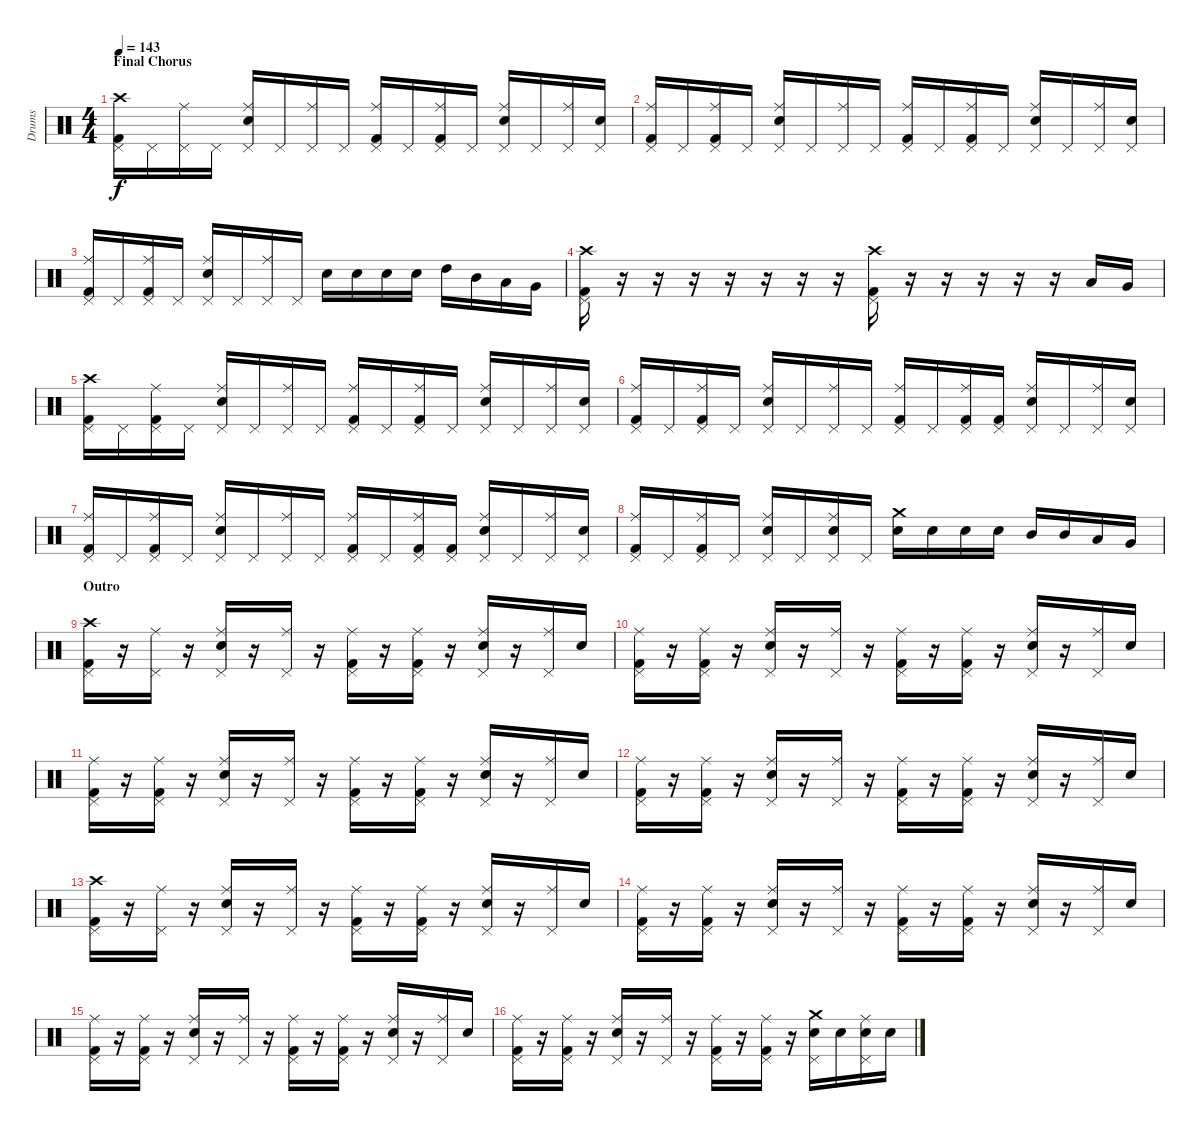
\track ("Drums" "Drums") {instrument percussion}
\staff {score}
\articulation defaults
\ts (4 4)
\section ("" "Final Chorus")
\tempo 143
\clef neutral
\ks c
("Crash high (hit)" "Kick (hit) 2" "Pedal Hi-Hat (hit)").16{dy f} "Pedal Hi-Hat (hit)".16 ("Ride (middle)" "Pedal Hi-Hat (hit)").16 "Pedal Hi-Hat (hit)".16 ("Ride (middle)" "Electric Snare (hit)" "Pedal Hi-Hat (hit)").16 "Pedal Hi-Hat (hit)".16 ("Ride (middle)" "Pedal Hi-Hat (hit)").16 "Pedal Hi-Hat (hit)".16 ("Ride (middle)" "Kick (hit) 2" "Pedal Hi-Hat (hit)").16 "Pedal Hi-Hat (hit)".16 ("Ride (middle)" "Kick (hit) 2" "Pedal Hi-Hat (hit)").16 "Pedal Hi-Hat (hit)".16 ("Ride (middle)" "Electric Snare (hit)" "Pedal Hi-Hat (hit)").16 "Pedal Hi-Hat (hit)".16 ("Ride (middle)" "Pedal Hi-Hat (hit)").16 ("Electric Snare (hit)" "Pedal Hi-Hat (hit)").16 |
("Ride (middle)" "Kick (hit) 2" "Pedal Hi-Hat (hit)").16 "Pedal Hi-Hat (hit)".16 ("Ride (middle)" "Kick (hit) 2" "Pedal Hi-Hat (hit)").16 "Pedal Hi-Hat (hit)".16 ("Ride (middle)" "Electric Snare (hit)" "Pedal Hi-Hat (hit)").16 "Pedal Hi-Hat (hit)".16 ("Ride (middle)" "Pedal Hi-Hat (hit)").16 "Pedal Hi-Hat (hit)".16 ("Ride (middle)" "Kick (hit) 2" "Pedal Hi-Hat (hit)").16 "Pedal Hi-Hat (hit)".16 ("Ride (middle)" "Kick (hit) 2" "Pedal Hi-Hat (hit)").16 "Pedal Hi-Hat (hit)".16 ("Ride (middle)" "Electric Snare (hit)" "Pedal Hi-Hat (hit)").16 "Pedal Hi-Hat (hit)".16 ("Ride (middle)" "Pedal Hi-Hat (hit)").16 ("Electric Snare (hit)" "Pedal Hi-Hat (hit)").16 |
("Ride (middle)" "Kick (hit) 2" "Pedal Hi-Hat (hit)").16 "Pedal Hi-Hat (hit)".16 ("Ride (middle)" "Kick (hit) 2" "Pedal Hi-Hat (hit)").16 "Pedal Hi-Hat (hit)".16 ("Ride (middle)" "Electric Snare (hit)" "Pedal Hi-Hat (hit)").16 "Pedal Hi-Hat (hit)".16 ("Ride (middle)" "Pedal Hi-Hat (hit)").16 "Pedal Hi-Hat (hit)".16 "Electric Snare (hit)".16 "Electric Snare (hit)".16 "Electric Snare (hit)".16 "Electric Snare (hit)".16 "High Tom (hit)".16 "Mid Tom (hit)".16 "Low Tom (hit)".16 "Very Low Tom (hit)".16 |
("Crash high (hit)" "Kick (hit) 2" "Pedal Hi-Hat (hit)").16 r.16 r.16 r.16 r.16 r.16 r.16 r.16 ("Crash high (hit)" "Kick (hit) 2" "Pedal Hi-Hat (hit)").16 r.16 r.16 r.16 r.16 r.16 "Low Tom (hit)".16 "Very Low Tom (hit)".16 |
("Crash high (hit)" "Kick (hit) 2" "Pedal Hi-Hat (hit)").16 "Pedal Hi-Hat (hit)".16 ("Ride (middle)" "Kick (hit) 2" "Pedal Hi-Hat (hit)").16 "Pedal Hi-Hat (hit)".16 ("Ride (middle)" "Electric Snare (hit)" "Pedal Hi-Hat (hit)").16 "Pedal Hi-Hat (hit)".16 ("Ride (middle)" "Pedal Hi-Hat (hit)").16 "Pedal Hi-Hat (hit)".16 ("Ride (middle)" "Kick (hit) 2" "Pedal Hi-Hat (hit)").16 "Pedal Hi-Hat (hit)".16 ("Ride (middle)" "Kick (hit) 2" "Pedal Hi-Hat (hit)").16 "Pedal Hi-Hat (hit)".16 ("Ride (middle)" "Electric Snare (hit)" "Pedal Hi-Hat (hit)").16 "Pedal Hi-Hat (hit)".16 ("Ride (middle)" "Pedal Hi-Hat (hit)").16 ("Electric Snare (hit)" "Pedal Hi-Hat (hit)").16 |
("Ride (middle)" "Kick (hit) 2" "Pedal Hi-Hat (hit)").16 "Pedal Hi-Hat (hit)".16 ("Ride (middle)" "Kick (hit) 2" "Pedal Hi-Hat (hit)").16 "Pedal Hi-Hat (hit)".16 ("Ride (middle)" "Electric Snare (hit)" "Pedal Hi-Hat (hit)").16 "Pedal Hi-Hat (hit)".16 ("Ride (middle)" "Pedal Hi-Hat (hit)").16 "Pedal Hi-Hat (hit)".16 ("Ride (middle)" "Kick (hit) 2" "Pedal Hi-Hat (hit)").16 "Pedal Hi-Hat (hit)".16 ("Ride (middle)" "Kick (hit) 2" "Pedal Hi-Hat (hit)").16 ("Kick (hit) 2" "Pedal Hi-Hat (hit)").16 ("Ride (middle)" "Electric Snare (hit)" "Pedal Hi-Hat (hit)").16 "Pedal Hi-Hat (hit)".16 ("Ride (middle)" "Pedal Hi-Hat (hit)").16 ("Electric Snare (hit)" "Pedal Hi-Hat (hit)").16 |
("Ride (middle)" "Kick (hit) 2" "Pedal Hi-Hat (hit)").16 "Pedal Hi-Hat (hit)".16 ("Ride (middle)" "Kick (hit) 2" "Pedal Hi-Hat (hit)").16 "Pedal Hi-Hat (hit)".16 ("Ride (middle)" "Electric Snare (hit)" "Pedal Hi-Hat (hit)").16 "Pedal Hi-Hat (hit)".16 ("Ride (middle)" "Pedal Hi-Hat (hit)").16 "Pedal Hi-Hat (hit)".16 ("Ride (middle)" "Kick (hit) 2" "Pedal Hi-Hat (hit)").16 "Pedal Hi-Hat (hit)".16 ("Ride (middle)" "Kick (hit) 2" "Pedal Hi-Hat (hit)").16 ("Kick (hit) 2" "Pedal Hi-Hat (hit)").16 ("Ride (middle)" "Electric Snare (hit)" "Pedal Hi-Hat (hit)").16 "Pedal Hi-Hat (hit)".16 ("Ride (middle)" "Pedal Hi-Hat (hit)").16 ("Electric Snare (hit)" "Pedal Hi-Hat (hit)").16 |
("Ride (middle)" "Kick (hit) 2" "Pedal Hi-Hat (hit)").16 "Pedal Hi-Hat (hit)".16 ("Ride (middle)" "Kick (hit) 2" "Pedal Hi-Hat (hit)").16 "Pedal Hi-Hat (hit)".16 ("Ride (middle)" "Electric Snare (hit)" "Pedal Hi-Hat (hit)").16 "Pedal Hi-Hat (hit)".16 ("Ride (middle)" "Electric Snare (hit)" "Pedal Hi-Hat (hit)").16 "Pedal Hi-Hat (hit)".16 ("Crash medium (hit)" "Electric Snare (hit)").16 "Electric Snare (hit)".16 "Electric Snare (hit)".16 "Electric Snare (hit)".16 "Mid Tom (hit)".16 "Mid Tom (hit)".16 "Low Tom (hit)".16 "Very Low Tom (hit)".16 |
\section ("" "Outro")
("Crash high (hit)" "Kick (hit) 2" "Pedal Hi-Hat (hit)").16 r.16 ("Ride (middle)" "Pedal Hi-Hat (hit)").16 r.16 ("Ride (middle)" "Electric Snare (hit)" "Pedal Hi-Hat (hit)").16 r.16 ("Ride (middle)" "Pedal Hi-Hat (hit)").16 r.16 ("Ride (middle)" "Kick (hit) 2" "Pedal Hi-Hat (hit)").16 r.16 ("Ride (middle)" "Kick (hit) 2" "Pedal Hi-Hat (hit)").16 r.16 ("Ride (middle)" "Electric Snare (hit)" "Pedal Hi-Hat (hit)").16 r.16 ("Ride (middle)" "Pedal Hi-Hat (hit)").16 "Electric Snare (hit)".16 |
("Ride (middle)" "Kick (hit) 2" "Pedal Hi-Hat (hit)").16 r.16 ("Ride (middle)" "Kick (hit) 2" "Pedal Hi-Hat (hit)").16 r.16 ("Ride (middle)" "Electric Snare (hit)" "Pedal Hi-Hat (hit)").16 r.16 ("Ride (middle)" "Pedal Hi-Hat (hit)").16 r.16 ("Ride (middle)" "Kick (hit) 2" "Pedal Hi-Hat (hit)").16 r.16 ("Ride (middle)" "Kick (hit) 2" "Pedal Hi-Hat (hit)").16 r.16 ("Ride (middle)" "Electric Snare (hit)" "Pedal Hi-Hat (hit)").16 r.16 ("Ride (middle)" "Pedal Hi-Hat (hit)").16 "Electric Snare (hit)".16 |
("Ride (middle)" "Kick (hit) 2" "Pedal Hi-Hat (hit)").16 r.16 ("Ride (middle)" "Kick (hit) 2" "Pedal Hi-Hat (hit)").16 r.16 ("Ride (middle)" "Electric Snare (hit)" "Pedal Hi-Hat (hit)").16 r.16 ("Ride (middle)" "Pedal Hi-Hat (hit)").16 r.16 ("Ride (middle)" "Kick (hit) 2" "Pedal Hi-Hat (hit)").16 r.16 ("Ride (middle)" "Kick (hit) 2" "Pedal Hi-Hat (hit)").16 r.16 ("Ride (middle)" "Electric Snare (hit)" "Pedal Hi-Hat (hit)").16 r.16 ("Ride (middle)" "Pedal Hi-Hat (hit)").16 "Electric Snare (hit)".16 |
("Ride (middle)" "Kick (hit) 2" "Pedal Hi-Hat (hit)").16 r.16 ("Ride (middle)" "Kick (hit) 2" "Pedal Hi-Hat (hit)").16 r.16 ("Ride (middle)" "Electric Snare (hit)" "Pedal Hi-Hat (hit)").16 r.16 ("Ride (middle)" "Pedal Hi-Hat (hit)").16 r.16 ("Ride (middle)" "Kick (hit) 2" "Pedal Hi-Hat (hit)").16 r.16 ("Ride (middle)" "Kick (hit) 2" "Pedal Hi-Hat (hit)").16 r.16 ("Ride (middle)" "Electric Snare (hit)" "Pedal Hi-Hat (hit)").16 r.16 ("Ride (middle)" "Pedal Hi-Hat (hit)").16 "Electric Snare (hit)".16 |
("Crash high (hit)" "Kick (hit) 2" "Pedal Hi-Hat (hit)").16 r.16 ("Ride (middle)" "Pedal Hi-Hat (hit)").16 r.16 ("Ride (middle)" "Electric Snare (hit)" "Pedal Hi-Hat (hit)").16 r.16 ("Ride (middle)" "Pedal Hi-Hat (hit)").16 r.16 ("Ride (middle)" "Kick (hit) 2" "Pedal Hi-Hat (hit)").16 r.16 ("Ride (middle)" "Kick (hit) 2" "Pedal Hi-Hat (hit)").16 r.16 ("Ride (middle)" "Electric Snare (hit)" "Pedal Hi-Hat (hit)").16 r.16 ("Ride (middle)" "Pedal Hi-Hat (hit)").16 "Electric Snare (hit)".16 |
("Ride (middle)" "Kick (hit) 2" "Pedal Hi-Hat (hit)").16 r.16 ("Ride (middle)" "Kick (hit) 2" "Pedal Hi-Hat (hit)").16 r.16 ("Ride (middle)" "Electric Snare (hit)" "Pedal Hi-Hat (hit)").16 r.16 ("Ride (middle)" "Pedal Hi-Hat (hit)").16 r.16 ("Ride (middle)" "Kick (hit) 2" "Pedal Hi-Hat (hit)").16 r.16 ("Ride (middle)" "Kick (hit) 2" "Pedal Hi-Hat (hit)").16 r.16 ("Ride (middle)" "Electric Snare (hit)" "Pedal Hi-Hat (hit)").16 r.16 ("Ride (middle)" "Pedal Hi-Hat (hit)").16 "Electric Snare (hit)".16 |
("Ride (middle)" "Kick (hit) 2" "Pedal Hi-Hat (hit)").16 r.16 ("Ride (middle)" "Kick (hit) 2" "Pedal Hi-Hat (hit)").16 r.16 ("Ride (middle)" "Electric Snare (hit)" "Pedal Hi-Hat (hit)").16 r.16 ("Ride (middle)" "Pedal Hi-Hat (hit)").16 r.16 ("Ride (middle)" "Kick (hit) 2" "Pedal Hi-Hat (hit)").16 r.16 ("Ride (middle)" "Kick (hit) 2" "Pedal Hi-Hat (hit)").16 r.16 ("Ride (middle)" "Electric Snare (hit)" "Pedal Hi-Hat (hit)").16 r.16 ("Ride (middle)" "Pedal Hi-Hat (hit)").16 "Electric Snare (hit)".16 |
("Ride (middle)" "Kick (hit) 2" "Pedal Hi-Hat (hit)").16 r.16 ("Ride (middle)" "Kick (hit) 2" "Pedal Hi-Hat (hit)").16 r.16 ("Ride (middle)" "Electric Snare (hit)" "Pedal Hi-Hat (hit)").16 r.16 ("Ride (middle)" "Pedal Hi-Hat (hit)").16 r.16 ("Ride (middle)" "Kick (hit) 2" "Pedal Hi-Hat (hit)").16 r.16 ("Ride (middle)" "Kick (hit) 2" "Pedal Hi-Hat (hit)").16 r.16 ("Crash medium (hit)" "Electric Snare (hit)" "Pedal Hi-Hat (hit)").16 "Electric Snare (hit)".16 ("Ride (middle)" "Electric Snare (hit)" "Pedal Hi-Hat (hit)").16 "Electric Snare (hit)".16
